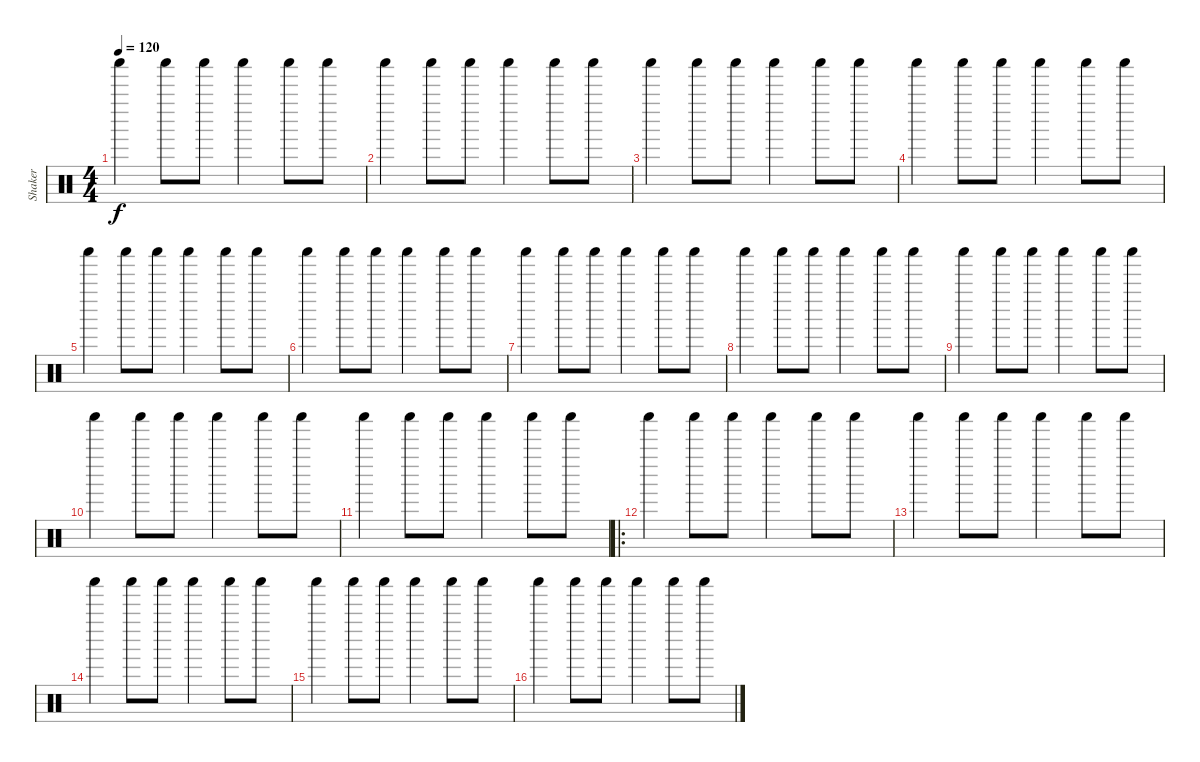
\track ("Shaker" "Shaker") {instrument percussion}
\staff {score}
\articulation defaults
\ts (4 4)
\tempo 120
\clef neutral
\ks c "Shaker (hit)".4{dy f} "Shaker (hit)".8 "Shaker (hit)".8 "Shaker (hit)".4 "Shaker (hit)".8 "Shaker (hit)".8
|
"Shaker (hit)".4 "Shaker (hit)".8 "Shaker (hit)".8 "Shaker (hit)".4 "Shaker (hit)".8 "Shaker (hit)".8 |
"Shaker (hit)".4 "Shaker (hit)".8 "Shaker (hit)".8 "Shaker (hit)".4 "Shaker (hit)".8 "Shaker (hit)".8 |
"Shaker (hit)".4 "Shaker (hit)".8 "Shaker (hit)".8 "Shaker (hit)".4 "Shaker (hit)".8 "Shaker (hit)".8 |
"Shaker (hit)".4 "Shaker (hit)".8 "Shaker (hit)".8 "Shaker (hit)".4 "Shaker (hit)".8 "Shaker (hit)".8 |
"Shaker (hit)".4 "Shaker (hit)".8 "Shaker (hit)".8 "Shaker (hit)".4 "Shaker (hit)".8 "Shaker (hit)".8 |
"Shaker (hit)".4 "Shaker (hit)".8 "Shaker (hit)".8 "Shaker (hit)".4 "Shaker (hit)".8 "Shaker (hit)".8 |
"Shaker (hit)".4 "Shaker (hit)".8 "Shaker (hit)".8 "Shaker (hit)".4 "Shaker (hit)".8 "Shaker (hit)".8 |
"Shaker (hit)".4 "Shaker (hit)".8 "Shaker (hit)".8 "Shaker (hit)".4 "Shaker (hit)".8 "Shaker (hit)".8 |
"Shaker (hit)".4 "Shaker (hit)".8 "Shaker (hit)".8 "Shaker (hit)".4 "Shaker (hit)".8 "Shaker (hit)".8 |
"Shaker (hit)".4 "Shaker (hit)".8 "Shaker (hit)".8 "Shaker (hit)".4 "Shaker (hit)".8 "Shaker (hit)".8 |
\ro "Shaker (hit)".4 "Shaker (hit)".8 "Shaker (hit)".8 "Shaker (hit)".4 "Shaker (hit)".8 "Shaker (hit)".8
|
"Shaker (hit)".4 "Shaker (hit)".8 "Shaker (hit)".8 "Shaker (hit)".4 "Shaker (hit)".8 "Shaker (hit)".8 |
"Shaker (hit)".4 "Shaker (hit)".8 "Shaker (hit)".8 "Shaker (hit)".4 "Shaker (hit)".8 "Shaker (hit)".8 |
"Shaker (hit)".4 "Shaker (hit)".8 "Shaker (hit)".8 "Shaker (hit)".4 "Shaker (hit)".8 "Shaker (hit)".8 |
"Shaker (hit)".4 "Shaker (hit)".8 "Shaker (hit)".8 "Shaker (hit)".4 "Shaker (hit)".8 "Shaker (hit)".8
